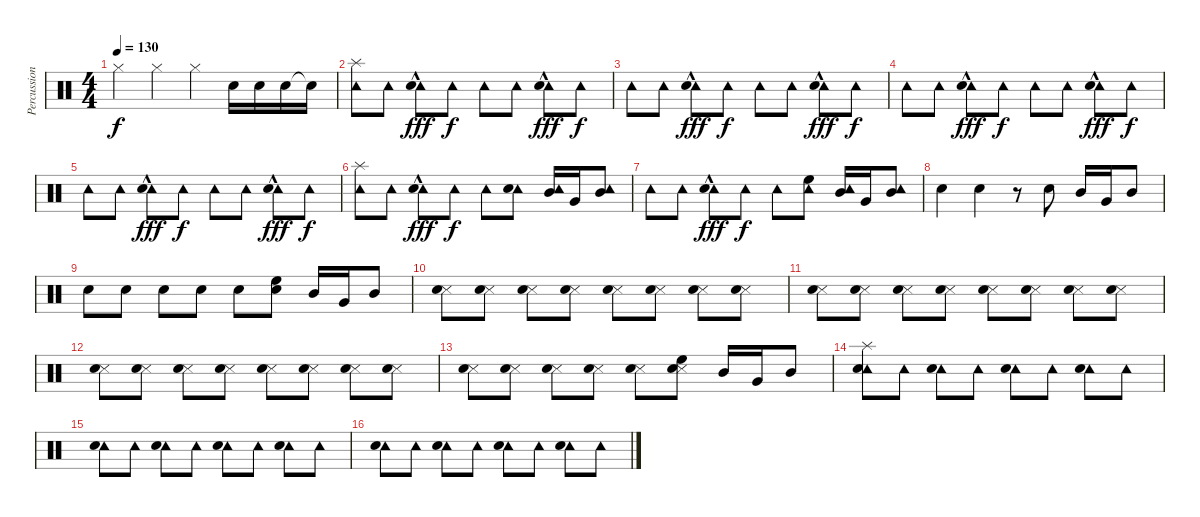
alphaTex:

\track ("Percussion" "Percussion") {instrument percussion}
\staff {score}
\articulation defaults
\ts (4 4)
\tempo 130
\clef neutral
\ks c "Hi-Hat (closed)".4{dy f} "Hi-Hat (closed)".4 "Hi-Hat (closed)".4 "Snare (hit) 2".16 "Snare (hit) 2".16 "Snare (hit) 2".16 "Snare (hit) 2"{t}.16
|
("Splash (hit)" "Tambourine (hit)").8 "Tambourine (hit)".8 ("Tambourine (hit)"{hac} "Snare (hit) 2").8{dy fff} "Tambourine (hit)".8{dy f} "Tambourine (hit)".8 "Tambourine (hit)".8 ("Tambourine (hit)"{hac} "Snare (hit) 2").8{dy fff} "Tambourine (hit)".8{dy f} |
"Tambourine (hit)".8 "Tambourine (hit)".8 ("Tambourine (hit)"{hac} "Snare (hit) 2").8{dy fff} "Tambourine (hit)".8{dy f} "Tambourine (hit)".8 "Tambourine (hit)".8 ("Tambourine (hit)"{hac} "Snare (hit) 2").8{dy fff} "Tambourine (hit)".8{dy f} |
"Tambourine (hit)".8 "Tambourine (hit)".8 ("Tambourine (hit)"{hac} "Snare (hit) 2").8{dy fff} "Tambourine (hit)".8{dy f} "Tambourine (hit)".8 "Tambourine (hit)".8 ("Tambourine (hit)"{hac} "Snare (hit) 2").8{dy fff} "Tambourine (hit)".8{dy f} |
"Tambourine (hit)".8 "Tambourine (hit)".8 ("Tambourine (hit)"{hac} "Snare (hit) 2").8{dy fff} "Tambourine (hit)".8{dy f} "Tambourine (hit)".8 "Tambourine (hit)".8 ("Tambourine (hit)"{hac} "Snare (hit) 2").8{dy fff} "Tambourine (hit)".8{dy f} |
("Splash (hit)" "Tambourine (hit)").8 "Tambourine (hit)".8 ("Tambourine (hit)"{hac} "Snare (hit) 2").8{dy fff} "Tambourine (hit)".8{dy f} "Tambourine (hit)".8 ("Tambourine (hit)" "Electric Snare (hit)").8 ("Tambourine (hit)" "Mid Tom (hit)").16 "Very Low Tom (hit)".16 ("Tambourine (hit)" "Mid Tom (hit)").8 |
"Tambourine (hit)".8 "Tambourine (hit)".8 ("Tambourine (hit)"{hac} "Snare (hit) 2").8{dy fff} "Tambourine (hit)".8{dy f} "Tambourine (hit)".8 ("Tambourine (hit)" "High Floor Tom (hit)").8 ("Tambourine (hit)" "Mid Tom (hit)").16 "Very Low Tom (hit)".16 ("Tambourine (hit)" "Mid Tom (hit)").8 |
"Snare (hit) 2".4 "Snare (hit) 2".4 r.8 "Electric Snare (hit)".8 "Mid Tom (hit)".16 "Very Low Tom (hit)".16 "Mid Tom (hit)".8 |
"Snare (hit) 2".8 "Snare (hit) 2".8 "Snare (hit) 2".8 "Snare (hit) 2".8 "Snare (hit) 2".8 ("Snare (hit) 2" "High Floor Tom (hit)").8 "Mid Tom (hit)".16 "Very Low Tom (hit)".16 "Mid Tom (hit)".8 |
("Snare (side stick) 3" "Snare (hit) 2").8 ("Snare (side stick) 3" "Snare (hit) 2").8 ("Snare (side stick) 3" "Snare (hit) 2").8 ("Snare (side stick) 3" "Snare (hit) 2").8 ("Snare (side stick) 3" "Snare (hit) 2").8 ("Snare (side stick) 3" "Snare (hit) 2").8 ("Snare (side stick) 3" "Snare (hit) 2").8 ("Snare (side stick) 3" "Snare (hit) 2").8 |
("Snare (side stick) 3" "Snare (hit) 2").8 ("Snare (side stick) 3" "Snare (hit) 2").8 ("Snare (side stick) 3" "Snare (hit) 2").8 ("Snare (side stick) 3" "Snare (hit) 2").8 ("Snare (side stick) 3" "Snare (hit) 2").8 ("Snare (side stick) 3" "Snare (hit) 2").8 ("Snare (side stick) 3" "Snare (hit) 2").8 ("Snare (side stick) 3" "Snare (hit) 2").8 |
("Snare (side stick) 3" "Snare (hit) 2").8 ("Snare (side stick) 3" "Snare (hit) 2").8 ("Snare (side stick) 3" "Snare (hit) 2").8 ("Snare (side stick) 3" "Snare (hit) 2").8 ("Snare (side stick) 3" "Snare (hit) 2").8 ("Snare (side stick) 3" "Snare (hit) 2").8 ("Snare (side stick) 3" "Snare (hit) 2").8 ("Snare (side stick) 3" "Snare (hit) 2").8 |
("Snare (side stick) 3" "Snare (hit) 2").8 ("Snare (side stick) 3" "Snare (hit) 2").8 ("Snare (side stick) 3" "Snare (hit) 2").8 ("Snare (side stick) 3" "Snare (hit) 2").8 ("Snare (side stick) 3" "Snare (hit) 2").8 ("Snare (side stick) 3" "Snare (hit) 2" "High Floor Tom (hit)").8 "Mid Tom (hit)".16 "Very Low Tom (hit)".16 "Mid Tom (hit)".8 |
("Splash (hit)" "Tambourine (hit)" "Snare (hit) 2").8 "Tambourine (hit)".8 ("Tambourine (hit)" "Snare (hit) 2").8 "Tambourine (hit)".8 ("Tambourine (hit)" "Snare (hit) 2").8 "Tambourine (hit)".8 ("Tambourine (hit)" "Snare (hit) 2").8 "Tambourine (hit)".8 |
("Tambourine (hit)" "Snare (hit) 2").8 "Tambourine (hit)".8 ("Tambourine (hit)" "Snare (hit) 2").8 "Tambourine (hit)".8 ("Tambourine (hit)" "Snare (hit) 2").8 "Tambourine (hit)".8 ("Tambourine (hit)" "Snare (hit) 2").8 "Tambourine (hit)".8 |
("Tambourine (hit)" "Snare (hit) 2").8 "Tambourine (hit)".8 ("Tambourine (hit)" "Snare (hit) 2").8 "Tambourine (hit)".8 ("Tambourine (hit)" "Snare (hit) 2").8 "Tambourine (hit)".8 ("Tambourine (hit)" "Snare (hit) 2").8 "Tambourine (hit)".8
